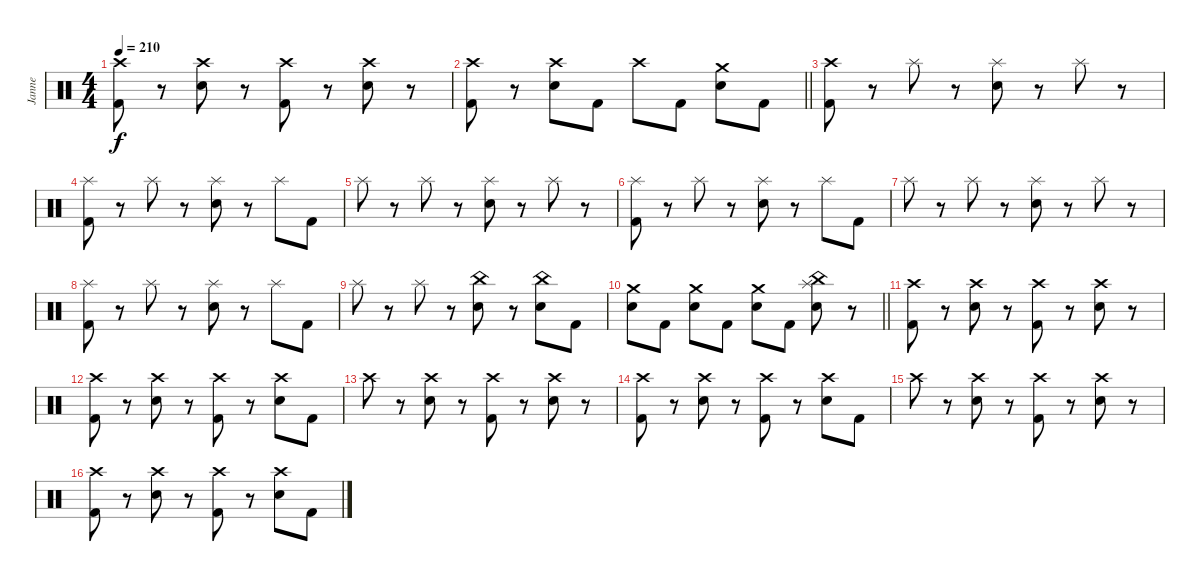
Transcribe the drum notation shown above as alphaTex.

\track ("Janne" "Janne") {instrument percussion}
\staff {score}
\articulation defaults
\ts (4 4)
\tempo 210
\clef neutral
\ks c
("Crash high (hit)" "Kick (hit) 2").8{dy f} r.8 ("Crash high (hit)" "Electric Snare (hit)").8 r.8 ("Crash high (hit)" "Kick (hit) 2").8 r.8 ("Crash high (hit)" "Electric Snare (hit)").8 r.8 |
\barLineRight lightlight
("Crash high (hit)" "Kick (hit) 2").8 r.8 ("Crash high (hit)" "Electric Snare (hit)").8 "Kick (hit) 2".8 "Crash high (hit)".8 "Kick (hit) 2".8 ("Crash medium (hit)" "Electric Snare (hit)").8 "Kick (hit) 2".8 |
("Crash high (hit)" "Kick (hit) 2").8 r.8 "Splash (hit)".8 r.8 ("Splash (hit)" "Electric Snare (hit)").8 r.8 "Splash (hit)".8 r.8 |
("Splash (hit)" "Kick (hit) 2").8 r.8 "Splash (hit)".8 r.8 ("Splash (hit)" "Electric Snare (hit)").8 r.8 "Splash (hit)".8 "Kick (hit) 2".8 |
"Splash (hit)".8 r.8 "Splash (hit)".8 r.8 ("Splash (hit)" "Electric Snare (hit)").8 r.8 "Splash (hit)".8 r.8 |
("Splash (hit)" "Kick (hit) 2").8 r.8 "Splash (hit)".8 r.8 ("Splash (hit)" "Electric Snare (hit)").8 r.8 "Splash (hit)".8 "Kick (hit) 2".8 |
"Splash (hit)".8 r.8 "Splash (hit)".8 r.8 ("Splash (hit)" "Electric Snare (hit)").8 r.8 "Splash (hit)".8 r.8 |
("Splash (hit)" "Kick (hit) 2").8 r.8 "Splash (hit)".8 r.8 ("Splash (hit)" "Electric Snare (hit)").8 r.8 "Splash (hit)".8 "Kick (hit) 2".8 |
"Splash (hit)".8 r.8 "Splash (hit)".8 r.8 ("China (hit)" "Electric Snare (hit)").8 r.8 ("China (hit)" "Electric Snare (hit)").8 "Kick (hit) 2".8 |
\barLineRight lightlight
("Crash medium (hit)" "Electric Snare (hit)").8 "Kick (hit) 2".8 ("Crash medium (hit)" "Electric Snare (hit)").8 "Kick (hit) 2".8 ("Crash medium (hit)" "Electric Snare (hit)").8 "Kick (hit) 2".8 ("China (hit)" "Splash (hit)" "Electric Snare (hit)").8 r.8 |
("Crash high (hit)" "Kick (hit) 2").8 r.8 ("Crash high (hit)" "Electric Snare (hit)").8 r.8 ("Crash high (hit)" "Kick (hit) 2").8 r.8 ("Crash high (hit)" "Electric Snare (hit)").8 r.8 |
("Crash high (hit)" "Kick (hit) 2").8 r.8 ("Crash high (hit)" "Electric Snare (hit)").8 r.8 ("Crash high (hit)" "Kick (hit) 2").8 r.8 ("Crash high (hit)" "Electric Snare (hit)").8 "Kick (hit) 2".8 |
"Crash high (hit)".8 r.8 ("Crash high (hit)" "Electric Snare (hit)").8 r.8 ("Crash high (hit)" "Kick (hit) 2").8 r.8 ("Crash high (hit)" "Electric Snare (hit)").8 r.8 |
("Crash high (hit)" "Kick (hit) 2").8 r.8 ("Crash high (hit)" "Electric Snare (hit)").8 r.8 ("Crash high (hit)" "Kick (hit) 2").8 r.8 ("Crash high (hit)" "Electric Snare (hit)").8 "Kick (hit) 2".8 |
"Crash high (hit)".8 r.8 ("Crash high (hit)" "Electric Snare (hit)").8 r.8 ("Crash high (hit)" "Kick (hit) 2").8 r.8 ("Crash high (hit)" "Electric Snare (hit)").8 r.8 |
("Crash high (hit)" "Kick (hit) 2").8 r.8 ("Crash high (hit)" "Electric Snare (hit)").8 r.8 ("Crash high (hit)" "Kick (hit) 2").8 r.8 ("Crash high (hit)" "Electric Snare (hit)").8 "Kick (hit) 2".8
